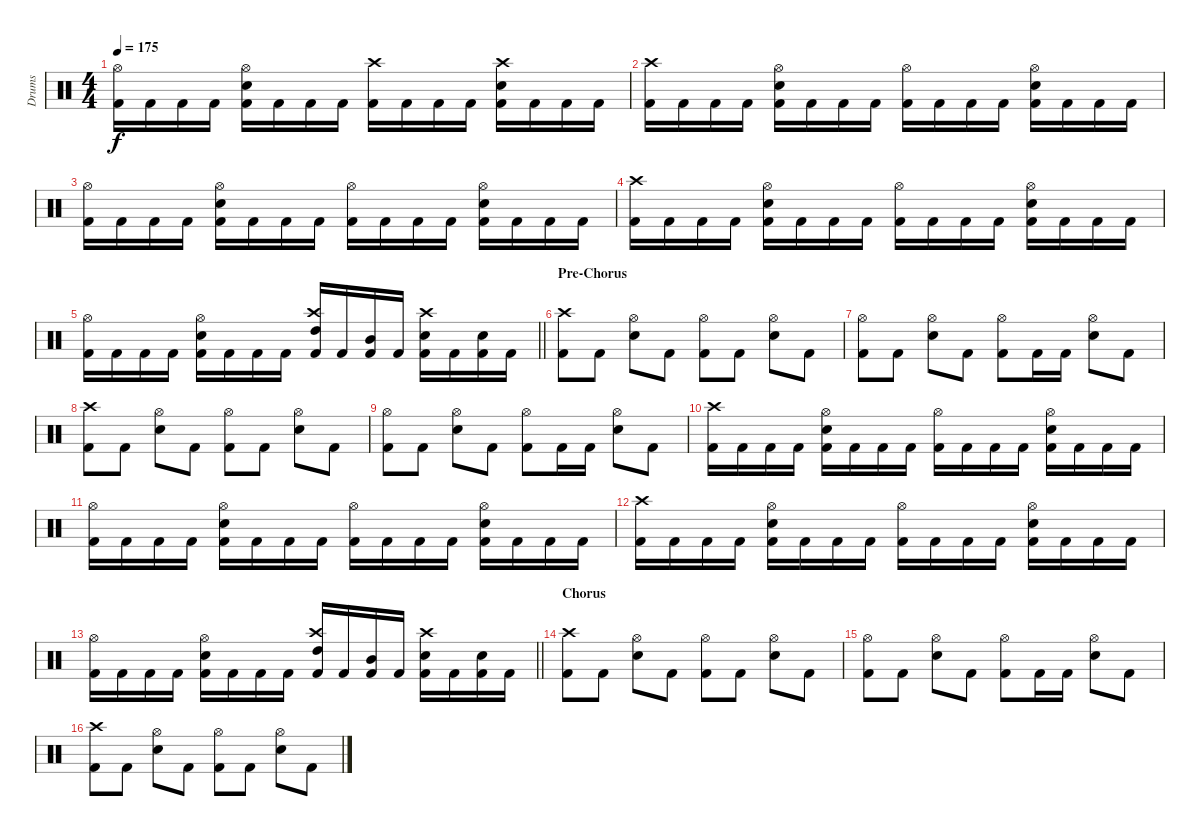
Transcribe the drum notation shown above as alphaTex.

\track ("Drums" "Drums") {instrument percussion}
\staff {score}
\articulation defaults
\ts (4 4)
\tempo 175
\clef neutral
\ks c
("Hi-Hat (open)" "Kick (hit) 2").16{dy f} "Kick (hit) 2".16 "Kick (hit) 2".16 "Kick (hit) 2".16 ("Hi-Hat (open)" "Snare (hit) 2" "Kick (hit) 2").16 "Kick (hit) 2".16 "Kick (hit) 2".16 "Kick (hit) 2".16 ("Crash high (hit)" "Kick (hit) 2").16 "Kick (hit) 2".16 "Kick (hit) 2".16 "Kick (hit) 2".16 ("Crash high (hit)" "Snare (hit) 2" "Kick (hit) 2").16 "Kick (hit) 2".16 "Kick (hit) 2".16 "Kick (hit) 2".16 |
("Crash high (hit)" "Kick (hit) 2").16 "Kick (hit) 2".16 "Kick (hit) 2".16 "Kick (hit) 2".16 ("Hi-Hat (open)" "Snare (hit) 2" "Kick (hit) 2").16 "Kick (hit) 2".16 "Kick (hit) 2".16 "Kick (hit) 2".16 ("Hi-Hat (open)" "Kick (hit) 2").16 "Kick (hit) 2".16 "Kick (hit) 2".16 "Kick (hit) 2".16 ("Hi-Hat (open)" "Snare (hit) 2" "Kick (hit) 2").16 "Kick (hit) 2".16 "Kick (hit) 2".16 "Kick (hit) 2".16 |
("Hi-Hat (open)" "Kick (hit) 2").16 "Kick (hit) 2".16 "Kick (hit) 2".16 "Kick (hit) 2".16 ("Hi-Hat (open)" "Snare (hit) 2" "Kick (hit) 2").16 "Kick (hit) 2".16 "Kick (hit) 2".16 "Kick (hit) 2".16 ("Hi-Hat (open)" "Kick (hit) 2").16 "Kick (hit) 2".16 "Kick (hit) 2".16 "Kick (hit) 2".16 ("Hi-Hat (open)" "Snare (hit) 2" "Kick (hit) 2").16 "Kick (hit) 2".16 "Kick (hit) 2".16 "Kick (hit) 2".16 |
("Crash high (hit)" "Kick (hit) 2").16 "Kick (hit) 2".16 "Kick (hit) 2".16 "Kick (hit) 2".16 ("Hi-Hat (open)" "Snare (hit) 2" "Kick (hit) 2").16 "Kick (hit) 2".16 "Kick (hit) 2".16 "Kick (hit) 2".16 ("Hi-Hat (open)" "Kick (hit) 2").16 "Kick (hit) 2".16 "Kick (hit) 2".16 "Kick (hit) 2".16 ("Hi-Hat (open)" "Snare (hit) 2" "Kick (hit) 2").16 "Kick (hit) 2".16 "Kick (hit) 2".16 "Kick (hit) 2".16 |
\barLineRight lightlight
("Hi-Hat (open)" "Kick (hit) 2").16 "Kick (hit) 2".16 "Kick (hit) 2".16 "Kick (hit) 2".16 ("Hi-Hat (open)" "Snare (hit) 2" "Kick (hit) 2").16 "Kick (hit) 2".16 "Kick (hit) 2".16 "Kick (hit) 2".16 ("Crash high (hit)" "High Tom (hit)" "Kick (hit) 2").16 "Kick (hit) 2".16 ("Mid Tom (hit)" "Kick (hit) 2").16 "Kick (hit) 2".16 ("Crash high (hit)" "Snare (hit) 2" "Kick (hit) 2").16 "Kick (hit) 2".16 ("Snare (hit) 2" "Kick (hit) 2").16 "Kick (hit) 2".16 |
\section ("" "Pre-Chorus")
("Crash high (hit)" "Kick (hit) 2").8 "Kick (hit) 2".8 ("Hi-Hat (open)" "Snare (hit) 2").8 "Kick (hit) 2".8 ("Hi-Hat (open)" "Kick (hit) 2").8 "Kick (hit) 2".8 ("Hi-Hat (open)" "Snare (hit) 2").8 "Kick (hit) 2".8 |
("Hi-Hat (open)" "Kick (hit) 2").8 "Kick (hit) 2".8 ("Hi-Hat (open)" "Snare (hit) 2").8 "Kick (hit) 2".8 ("Hi-Hat (open)" "Kick (hit) 2").8 "Kick (hit) 2".16 "Kick (hit) 2".16 ("Hi-Hat (open)" "Snare (hit) 2").8 "Kick (hit) 2".8 |
("Crash high (hit)" "Kick (hit) 2").8 "Kick (hit) 2".8 ("Hi-Hat (open)" "Snare (hit) 2").8 "Kick (hit) 2".8 ("Hi-Hat (open)" "Kick (hit) 2").8 "Kick (hit) 2".8 ("Hi-Hat (open)" "Snare (hit) 2").8 "Kick (hit) 2".8 |
("Hi-Hat (open)" "Kick (hit) 2").8 "Kick (hit) 2".8 ("Hi-Hat (open)" "Snare (hit) 2").8 "Kick (hit) 2".8 ("Hi-Hat (open)" "Kick (hit) 2").8 "Kick (hit) 2".16 "Kick (hit) 2".16 ("Hi-Hat (open)" "Snare (hit) 2").8 "Kick (hit) 2".8 |
("Crash high (hit)" "Kick (hit) 2").16 "Kick (hit) 2".16 "Kick (hit) 2".16 "Kick (hit) 2".16 ("Hi-Hat (open)" "Snare (hit) 2" "Kick (hit) 2").16 "Kick (hit) 2".16 "Kick (hit) 2".16 "Kick (hit) 2".16 ("Hi-Hat (open)" "Kick (hit) 2").16 "Kick (hit) 2".16 "Kick (hit) 2".16 "Kick (hit) 2".16 ("Hi-Hat (open)" "Snare (hit) 2" "Kick (hit) 2").16 "Kick (hit) 2".16 "Kick (hit) 2".16 "Kick (hit) 2".16 |
("Hi-Hat (open)" "Kick (hit) 2").16 "Kick (hit) 2".16 "Kick (hit) 2".16 "Kick (hit) 2".16 ("Hi-Hat (open)" "Snare (hit) 2" "Kick (hit) 2").16 "Kick (hit) 2".16 "Kick (hit) 2".16 "Kick (hit) 2".16 ("Hi-Hat (open)" "Kick (hit) 2").16 "Kick (hit) 2".16 "Kick (hit) 2".16 "Kick (hit) 2".16 ("Hi-Hat (open)" "Snare (hit) 2" "Kick (hit) 2").16 "Kick (hit) 2".16 "Kick (hit) 2".16 "Kick (hit) 2".16 |
("Crash high (hit)" "Kick (hit) 2").16 "Kick (hit) 2".16 "Kick (hit) 2".16 "Kick (hit) 2".16 ("Hi-Hat (open)" "Snare (hit) 2" "Kick (hit) 2").16 "Kick (hit) 2".16 "Kick (hit) 2".16 "Kick (hit) 2".16 ("Hi-Hat (open)" "Kick (hit) 2").16 "Kick (hit) 2".16 "Kick (hit) 2".16 "Kick (hit) 2".16 ("Hi-Hat (open)" "Snare (hit) 2" "Kick (hit) 2").16 "Kick (hit) 2".16 "Kick (hit) 2".16 "Kick (hit) 2".16 |
\barLineRight lightlight
("Hi-Hat (open)" "Kick (hit) 2").16 "Kick (hit) 2".16 "Kick (hit) 2".16 "Kick (hit) 2".16 ("Hi-Hat (open)" "Snare (hit) 2" "Kick (hit) 2").16 "Kick (hit) 2".16 "Kick (hit) 2".16 "Kick (hit) 2".16 ("Crash high (hit)" "High Tom (hit)" "Kick (hit) 2").16 "Kick (hit) 2".16 ("Mid Tom (hit)" "Kick (hit) 2").16 "Kick (hit) 2".16 ("Crash high (hit)" "Snare (hit) 2" "Kick (hit) 2").16 "Kick (hit) 2".16 ("Snare (hit) 2" "Kick (hit) 2").16 "Kick (hit) 2".16 |
\section ("" "Chorus")
("Crash high (hit)" "Kick (hit) 2").8 "Kick (hit) 2".8 ("Hi-Hat (open)" "Snare (hit) 2").8 "Kick (hit) 2".8 ("Hi-Hat (open)" "Kick (hit) 2").8 "Kick (hit) 2".8 ("Hi-Hat (open)" "Snare (hit) 2").8 "Kick (hit) 2".8 |
("Hi-Hat (open)" "Kick (hit) 2").8 "Kick (hit) 2".8 ("Hi-Hat (open)" "Snare (hit) 2").8 "Kick (hit) 2".8 ("Hi-Hat (open)" "Kick (hit) 2").8 "Kick (hit) 2".16 "Kick (hit) 2".16 ("Hi-Hat (open)" "Snare (hit) 2").8 "Kick (hit) 2".8 |
("Crash high (hit)" "Kick (hit) 2").8 "Kick (hit) 2".8 ("Hi-Hat (open)" "Snare (hit) 2").8 "Kick (hit) 2".8 ("Hi-Hat (open)" "Kick (hit) 2").8 "Kick (hit) 2".8 ("Hi-Hat (open)" "Snare (hit) 2").8 "Kick (hit) 2".8
